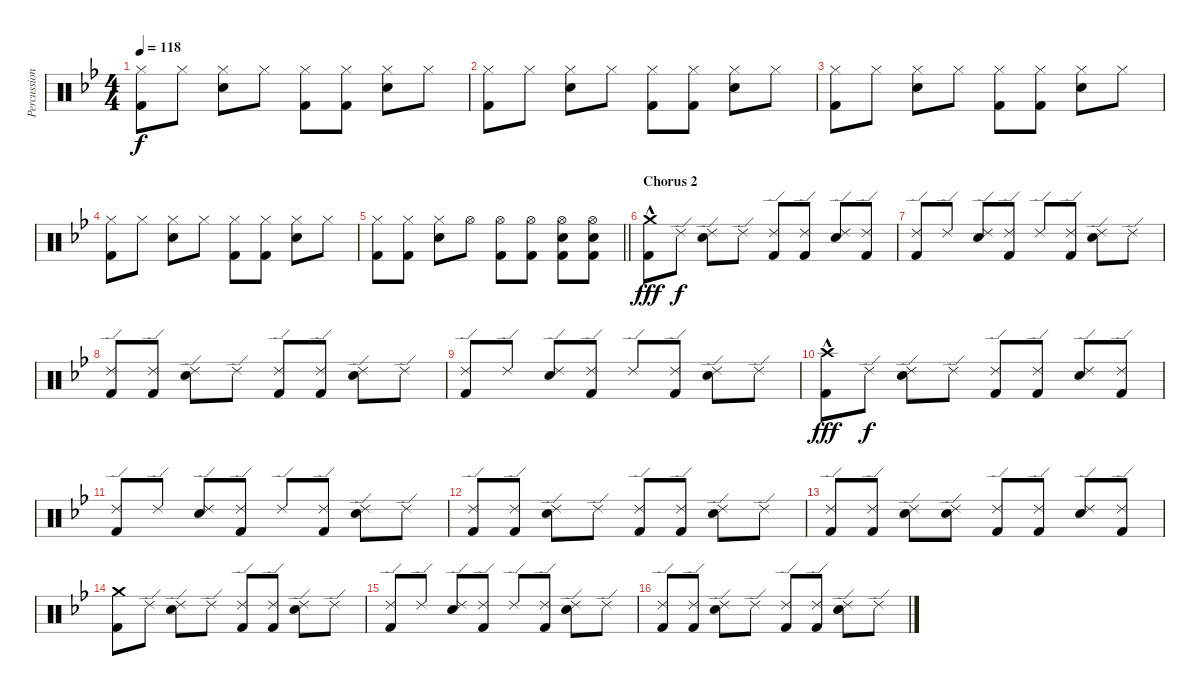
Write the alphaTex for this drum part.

\track ("Percussion" "Percussion") {instrument percussion}
\staff {score}
\articulation defaults
\ts (4 4)
\tempo 118
\clef neutral
\ks bb
("Hi-Hat (closed)" "Kick (hit) 2").8{dy f} "Hi-Hat (closed)".8 ("Hi-Hat (closed)" "Electric Snare (hit)").8 "Hi-Hat (closed)".8 ("Hi-Hat (closed)" "Kick (hit) 2").8 ("Hi-Hat (closed)" "Kick (hit) 2").8 ("Hi-Hat (closed)" "Electric Snare (hit)").8 "Hi-Hat (closed)".8 |
("Hi-Hat (closed)" "Kick (hit) 2").8 "Hi-Hat (closed)".8 ("Hi-Hat (closed)" "Electric Snare (hit)").8 "Hi-Hat (closed)".8 ("Hi-Hat (closed)" "Kick (hit) 2").8 ("Hi-Hat (closed)" "Kick (hit) 2").8 ("Hi-Hat (closed)" "Electric Snare (hit)").8 "Hi-Hat (closed)".8 |
("Hi-Hat (closed)" "Kick (hit) 2").8 "Hi-Hat (closed)".8 ("Hi-Hat (closed)" "Electric Snare (hit)").8 "Hi-Hat (closed)".8 ("Hi-Hat (closed)" "Kick (hit) 2").8 ("Hi-Hat (closed)" "Kick (hit) 2").8 ("Hi-Hat (closed)" "Electric Snare (hit)").8 "Hi-Hat (closed)".8 |
("Hi-Hat (closed)" "Kick (hit) 2").8 "Hi-Hat (closed)".8 ("Hi-Hat (closed)" "Electric Snare (hit)").8 "Hi-Hat (closed)".8 ("Hi-Hat (closed)" "Kick (hit) 2").8 ("Hi-Hat (closed)" "Kick (hit) 2").8 ("Hi-Hat (closed)" "Electric Snare (hit)").8 "Hi-Hat (closed)".8 |
\barLineRight lightlight
("Hi-Hat (closed)" "Kick (hit) 2").8 ("Hi-Hat (closed)" "Kick (hit) 2").8 ("Hi-Hat (closed)" "Electric Snare (hit)").8 "Hi-Hat (open)".8 ("Hi-Hat (open)" "Kick (hit) 2").8 ("Hi-Hat (open)" "Kick (hit) 2").8 ("Hi-Hat (open)" "Electric Snare (hit)" "Kick (hit) 2").8 ("Hi-Hat (open)" "Electric Snare (hit)" "Kick (hit) 2").8 |
\section ("" "Chorus 2")
("Crash medium (hit)"{hac} "Kick (hit) 2").8{dy fff volume 16} "Ride (edge) 2".8{dy f} ("Ride (edge) 2" "Electric Snare (hit)").8 "Ride (edge) 2".8 ("Ride (edge) 2" "Kick (hit) 2").8 ("Ride (edge) 2" "Kick (hit) 2").8 ("Ride (edge) 2" "Electric Snare (hit)").8 ("Ride (edge) 2" "Kick (hit) 2").8 |
("Ride (edge) 2" "Kick (hit) 2").8 "Ride (edge) 2".8 ("Ride (edge) 2" "Electric Snare (hit)").8 ("Ride (edge) 2" "Kick (hit) 2").8 "Ride (edge) 2".8 ("Ride (edge) 2" "Kick (hit) 2").8 ("Ride (edge) 2" "Electric Snare (hit)").8 "Ride (edge) 2".8 |
("Ride (edge) 2" "Kick (hit) 2").8 ("Ride (edge) 2" "Kick (hit) 2").8 ("Ride (edge) 2" "Electric Snare (hit)").8 "Ride (edge) 2".8 ("Ride (edge) 2" "Kick (hit) 2").8 ("Ride (edge) 2" "Kick (hit) 2").8 ("Ride (edge) 2" "Electric Snare (hit)").8 "Ride (edge) 2".8 |
("Ride (edge) 2" "Kick (hit) 2").8 "Ride (edge) 2".8 ("Ride (edge) 2" "Electric Snare (hit)").8 ("Ride (edge) 2" "Kick (hit) 2").8 "Ride (edge) 2".8 ("Ride (edge) 2" "Kick (hit) 2").8 ("Ride (edge) 2" "Electric Snare (hit)").8 "Ride (edge) 2".8 |
("Crash high (hit)"{hac} "Kick (hit) 2").8{dy fff} "Ride (edge) 2".8{dy f} ("Ride (edge) 2" "Electric Snare (hit)").8 "Ride (edge) 2".8 ("Ride (edge) 2" "Kick (hit) 2").8 ("Ride (edge) 2" "Kick (hit) 2").8 ("Ride (edge) 2" "Electric Snare (hit)").8 ("Ride (edge) 2" "Kick (hit) 2").8 |
("Ride (edge) 2" "Kick (hit) 2").8 "Ride (edge) 2".8 ("Ride (edge) 2" "Electric Snare (hit)").8 ("Ride (edge) 2" "Kick (hit) 2").8 "Ride (edge) 2".8 ("Ride (edge) 2" "Kick (hit) 2").8 ("Ride (edge) 2" "Electric Snare (hit)").8 "Ride (edge) 2".8 |
("Ride (edge) 2" "Kick (hit) 2").8 ("Ride (edge) 2" "Kick (hit) 2").8 ("Ride (edge) 2" "Electric Snare (hit)").8 "Ride (edge) 2".8 ("Ride (edge) 2" "Kick (hit) 2").8 ("Ride (edge) 2" "Kick (hit) 2").8 ("Ride (edge) 2" "Electric Snare (hit)").8 "Ride (edge) 2".8 |
("Ride (edge) 2" "Kick (hit) 2").8 ("Ride (edge) 2" "Kick (hit) 2").8 ("Ride (edge) 2" "Electric Snare (hit)").8 ("Ride (edge) 2" "Electric Snare (hit)").8 ("Ride (edge) 2" "Kick (hit) 2").8 ("Ride (edge) 2" "Kick (hit) 2").8 ("Ride (edge) 2" "Electric Snare (hit)").8 ("Ride (edge) 2" "Kick (hit) 2").8 |
("Crash medium (hit)" "Kick (hit) 2").8 "Ride (edge) 2".8 ("Ride (edge) 2" "Electric Snare (hit)").8 "Ride (edge) 2".8 ("Ride (edge) 2" "Kick (hit) 2").8 ("Ride (edge) 2" "Kick (hit) 2").8 ("Ride (edge) 2" "Electric Snare (hit)").8 "Ride (edge) 2".8 |
("Ride (edge) 2" "Kick (hit) 2").8 "Ride (edge) 2".8 ("Ride (edge) 2" "Electric Snare (hit)").8 ("Ride (edge) 2" "Kick (hit) 2").8 "Ride (edge) 2".8 ("Ride (edge) 2" "Kick (hit) 2").8 ("Ride (edge) 2" "Electric Snare (hit)").8 "Ride (edge) 2".8 |
("Ride (edge) 2" "Kick (hit) 2").8 ("Ride (edge) 2" "Kick (hit) 2").8 ("Ride (edge) 2" "Electric Snare (hit)").8 "Ride (edge) 2".8 ("Ride (edge) 2" "Kick (hit) 2").8 ("Ride (edge) 2" "Kick (hit) 2").8 ("Ride (edge) 2" "Electric Snare (hit)").8 "Ride (edge) 2".8
